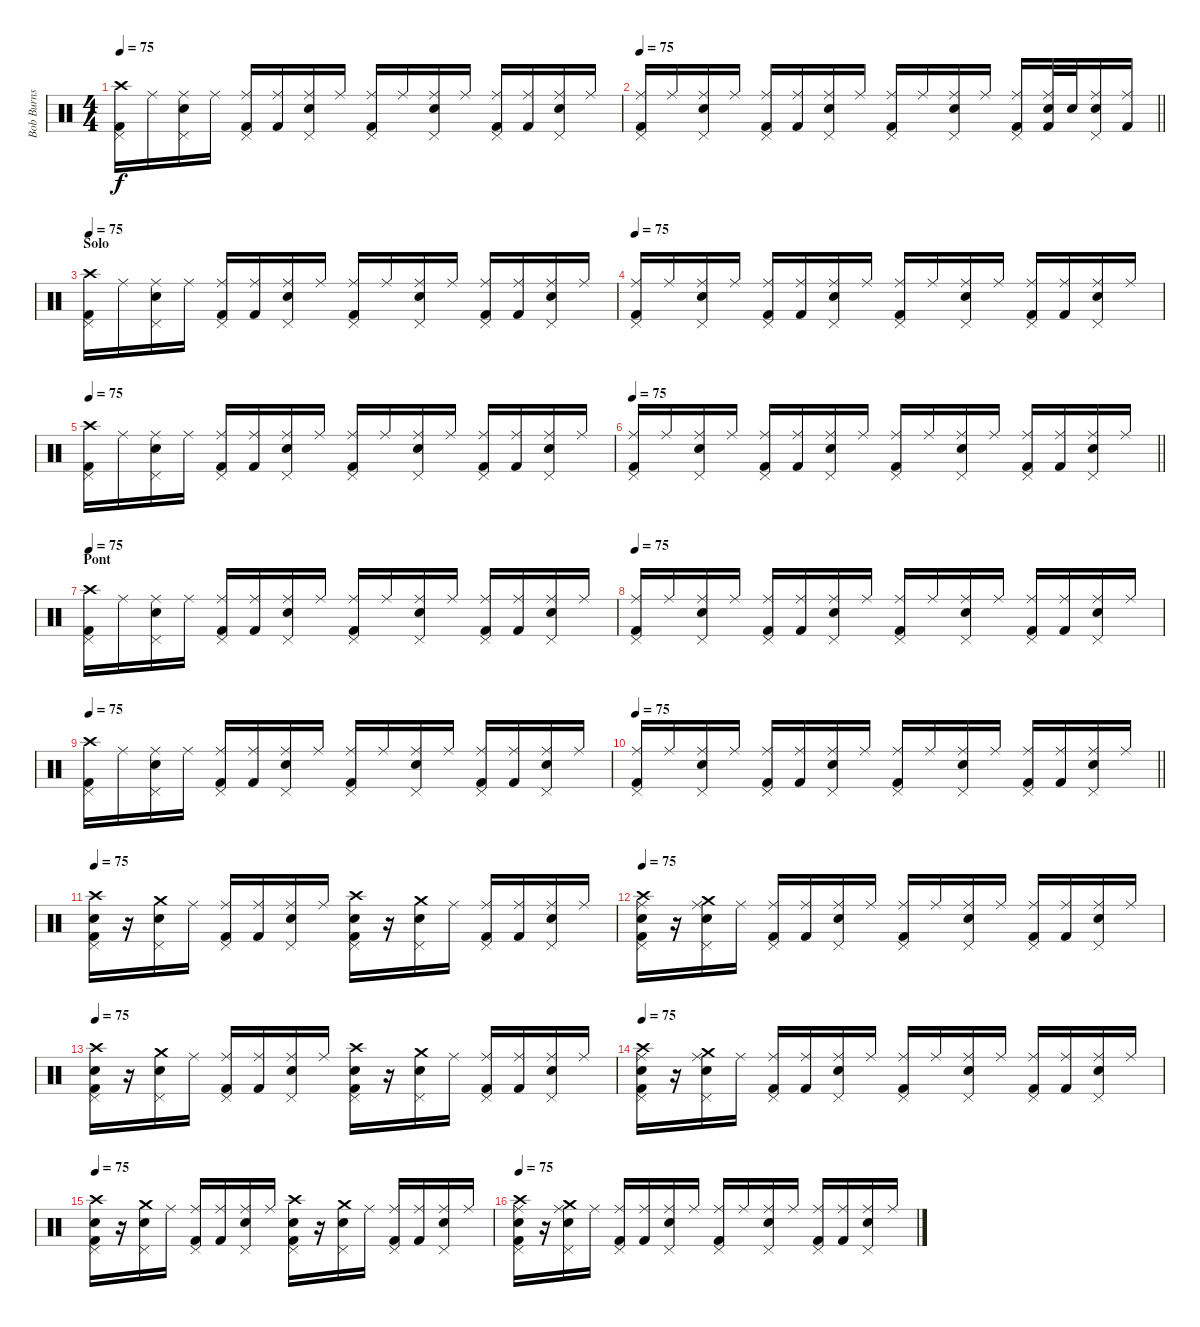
\track ("Bob Burns (drums and percussion)" "Bob Burns ") {instrument percussion}
\staff {score}
\articulation defaults
\ts (4 4)
\tempo 75
\clef neutral
\ks c
("Crash high (hit)" "Pedal Hi-Hat (hit)" "Kick (hit) 2").16{dy f} "Ride (middle)".16 ("Ride (middle)" "Pedal Hi-Hat (hit)" "Electric Snare (hit)").16 "Ride (middle)".16 ("Ride (middle)" "Pedal Hi-Hat (hit)" "Kick (hit) 2").16 ("Ride (middle)" "Kick (hit) 2").16 ("Ride (middle)" "Pedal Hi-Hat (hit)" "Electric Snare (hit)").16 "Ride (middle)".16 ("Ride (middle)" "Pedal Hi-Hat (hit)" "Kick (hit) 2").16 "Ride (middle)".16 ("Ride (middle)" "Pedal Hi-Hat (hit)" "Electric Snare (hit)").16 "Ride (middle)".16 ("Ride (middle)" "Pedal Hi-Hat (hit)" "Kick (hit) 2").16 ("Ride (middle)" "Kick (hit) 2").16 ("Ride (middle)" "Pedal Hi-Hat (hit)" "Electric Snare (hit)").16 "Ride (middle)".16 |
\tempo 75
\barLineRight lightlight
("Ride (middle)" "Pedal Hi-Hat (hit)" "Kick (hit) 2").16 "Ride (middle)".16 ("Ride (middle)" "Pedal Hi-Hat (hit)" "Electric Snare (hit)").16 "Ride (middle)".16 ("Ride (middle)" "Pedal Hi-Hat (hit)" "Kick (hit) 2").16 ("Ride (middle)" "Kick (hit) 2").16 ("Ride (middle)" "Pedal Hi-Hat (hit)" "Electric Snare (hit)").16 "Ride (middle)".16 ("Ride (middle)" "Pedal Hi-Hat (hit)" "Kick (hit) 2").16 "Ride (middle)".16 ("Ride (middle)" "Pedal Hi-Hat (hit)" "Electric Snare (hit)").16 "Ride (middle)".16 ("Ride (middle)" "Pedal Hi-Hat (hit)" "Kick (hit) 2").16 ("Ride (middle)" "Electric Snare (hit)" "Kick (hit) 2").32 "Electric Snare (hit)".32 ("Ride (middle)" "Pedal Hi-Hat (hit)" "Electric Snare (hit)").16 ("Ride (middle)" "Kick (hit) 2").16 |
\section ("" "Solo")
\tempo 75
("Crash high (hit)" "Pedal Hi-Hat (hit)" "Kick (hit) 2").16 "Ride (middle)".16 ("Ride (middle)" "Pedal Hi-Hat (hit)" "Electric Snare (hit)").16 "Ride (middle)".16 ("Ride (middle)" "Pedal Hi-Hat (hit)" "Kick (hit) 2").16 ("Ride (middle)" "Kick (hit) 2").16 ("Ride (middle)" "Pedal Hi-Hat (hit)" "Electric Snare (hit)").16 "Ride (middle)".16 ("Ride (middle)" "Pedal Hi-Hat (hit)" "Kick (hit) 2").16 "Ride (middle)".16 ("Ride (middle)" "Pedal Hi-Hat (hit)" "Electric Snare (hit)").16 "Ride (middle)".16 ("Ride (middle)" "Pedal Hi-Hat (hit)" "Kick (hit) 2").16 ("Ride (middle)" "Kick (hit) 2").16 ("Ride (middle)" "Pedal Hi-Hat (hit)" "Electric Snare (hit)").16 "Ride (middle)".16 |
\tempo 75
("Ride (middle)" "Pedal Hi-Hat (hit)" "Kick (hit) 2").16 "Ride (middle)".16 ("Ride (middle)" "Pedal Hi-Hat (hit)" "Electric Snare (hit)").16 "Ride (middle)".16 ("Ride (middle)" "Pedal Hi-Hat (hit)" "Kick (hit) 2").16 ("Ride (middle)" "Kick (hit) 2").16 ("Ride (middle)" "Pedal Hi-Hat (hit)" "Electric Snare (hit)").16 "Ride (middle)".16 ("Ride (middle)" "Pedal Hi-Hat (hit)" "Kick (hit) 2").16 "Ride (middle)".16 ("Ride (middle)" "Pedal Hi-Hat (hit)" "Electric Snare (hit)").16 "Ride (middle)".16 ("Ride (middle)" "Pedal Hi-Hat (hit)" "Kick (hit) 2").16 ("Ride (middle)" "Kick (hit) 2").16 ("Ride (middle)" "Pedal Hi-Hat (hit)" "Electric Snare (hit)").16 "Ride (middle)".16 |
\tempo 75
("Crash high (hit)" "Pedal Hi-Hat (hit)" "Kick (hit) 2").16 "Ride (middle)".16 ("Ride (middle)" "Pedal Hi-Hat (hit)" "Electric Snare (hit)").16 "Ride (middle)".16 ("Ride (middle)" "Pedal Hi-Hat (hit)" "Kick (hit) 2").16 ("Ride (middle)" "Kick (hit) 2").16 ("Ride (middle)" "Pedal Hi-Hat (hit)" "Electric Snare (hit)").16 "Ride (middle)".16 ("Ride (middle)" "Pedal Hi-Hat (hit)" "Kick (hit) 2").16 "Ride (middle)".16 ("Ride (middle)" "Pedal Hi-Hat (hit)" "Electric Snare (hit)").16 "Ride (middle)".16 ("Ride (middle)" "Pedal Hi-Hat (hit)" "Kick (hit) 2").16 ("Ride (middle)" "Kick (hit) 2").16 ("Ride (middle)" "Pedal Hi-Hat (hit)" "Electric Snare (hit)").16 "Ride (middle)".16 |
\tempo 75
\barLineRight lightlight
("Ride (middle)" "Pedal Hi-Hat (hit)" "Kick (hit) 2").16 "Ride (middle)".16 ("Ride (middle)" "Pedal Hi-Hat (hit)" "Electric Snare (hit)").16 "Ride (middle)".16 ("Ride (middle)" "Pedal Hi-Hat (hit)" "Kick (hit) 2").16 ("Ride (middle)" "Kick (hit) 2").16 ("Ride (middle)" "Pedal Hi-Hat (hit)" "Electric Snare (hit)").16 "Ride (middle)".16 ("Ride (middle)" "Pedal Hi-Hat (hit)" "Kick (hit) 2").16 "Ride (middle)".16 ("Ride (middle)" "Pedal Hi-Hat (hit)" "Electric Snare (hit)").16 "Ride (middle)".16 ("Ride (middle)" "Pedal Hi-Hat (hit)" "Kick (hit) 2").16 ("Ride (middle)" "Kick (hit) 2").16 ("Ride (middle)" "Pedal Hi-Hat (hit)" "Electric Snare (hit)").16 "Ride (middle)".16 |
\section ("" "Pont")
\tempo 75
("Crash high (hit)" "Pedal Hi-Hat (hit)" "Kick (hit) 2").16 "Ride (middle)".16 ("Ride (middle)" "Pedal Hi-Hat (hit)" "Electric Snare (hit)").16 "Ride (middle)".16 ("Ride (middle)" "Pedal Hi-Hat (hit)" "Kick (hit) 2").16 ("Ride (middle)" "Kick (hit) 2").16 ("Ride (middle)" "Pedal Hi-Hat (hit)" "Electric Snare (hit)").16 "Ride (middle)".16 ("Ride (middle)" "Pedal Hi-Hat (hit)" "Kick (hit) 2").16 "Ride (middle)".16 ("Ride (middle)" "Pedal Hi-Hat (hit)" "Electric Snare (hit)").16 "Ride (middle)".16 ("Ride (middle)" "Pedal Hi-Hat (hit)" "Kick (hit) 2").16 ("Ride (middle)" "Kick (hit) 2").16 ("Ride (middle)" "Pedal Hi-Hat (hit)" "Electric Snare (hit)").16 "Ride (middle)".16 |
\tempo 75
("Ride (middle)" "Pedal Hi-Hat (hit)" "Kick (hit) 2").16 "Ride (middle)".16 ("Ride (middle)" "Pedal Hi-Hat (hit)" "Electric Snare (hit)").16 "Ride (middle)".16 ("Ride (middle)" "Pedal Hi-Hat (hit)" "Kick (hit) 2").16 ("Ride (middle)" "Kick (hit) 2").16 ("Ride (middle)" "Pedal Hi-Hat (hit)" "Electric Snare (hit)").16 "Ride (middle)".16 ("Ride (middle)" "Pedal Hi-Hat (hit)" "Kick (hit) 2").16 "Ride (middle)".16 ("Ride (middle)" "Pedal Hi-Hat (hit)" "Electric Snare (hit)").16 "Ride (middle)".16 ("Ride (middle)" "Pedal Hi-Hat (hit)" "Kick (hit) 2").16 ("Ride (middle)" "Kick (hit) 2").16 ("Ride (middle)" "Pedal Hi-Hat (hit)" "Electric Snare (hit)").16 "Ride (middle)".16 |
\tempo 75
("Crash high (hit)" "Pedal Hi-Hat (hit)" "Kick (hit) 2").16 "Ride (middle)".16 ("Ride (middle)" "Pedal Hi-Hat (hit)" "Electric Snare (hit)").16 "Ride (middle)".16 ("Ride (middle)" "Pedal Hi-Hat (hit)" "Kick (hit) 2").16 ("Ride (middle)" "Kick (hit) 2").16 ("Ride (middle)" "Pedal Hi-Hat (hit)" "Electric Snare (hit)").16 "Ride (middle)".16 ("Ride (middle)" "Pedal Hi-Hat (hit)" "Kick (hit) 2").16 "Ride (middle)".16 ("Ride (middle)" "Pedal Hi-Hat (hit)" "Electric Snare (hit)").16 "Ride (middle)".16 ("Ride (middle)" "Pedal Hi-Hat (hit)" "Kick (hit) 2").16 ("Ride (middle)" "Kick (hit) 2").16 ("Ride (middle)" "Pedal Hi-Hat (hit)" "Electric Snare (hit)").16 "Ride (middle)".16 |
\tempo 75
\barLineRight lightlight
("Ride (middle)" "Pedal Hi-Hat (hit)" "Kick (hit) 2").16 "Ride (middle)".16 ("Ride (middle)" "Pedal Hi-Hat (hit)" "Electric Snare (hit)").16 "Ride (middle)".16 ("Ride (middle)" "Pedal Hi-Hat (hit)" "Kick (hit) 2").16 ("Ride (middle)" "Kick (hit) 2").16 ("Ride (middle)" "Pedal Hi-Hat (hit)" "Electric Snare (hit)").16 "Ride (middle)".16 ("Ride (middle)" "Pedal Hi-Hat (hit)" "Kick (hit) 2").16 "Ride (middle)".16 ("Ride (middle)" "Pedal Hi-Hat (hit)" "Electric Snare (hit)").16 "Ride (middle)".16 ("Ride (middle)" "Pedal Hi-Hat (hit)" "Kick (hit) 2").16 ("Ride (middle)" "Kick (hit) 2").16 ("Ride (middle)" "Pedal Hi-Hat (hit)" "Electric Snare (hit)").16 "Ride (middle)".16 |
\section ("" "")
\tempo 75
("Crash high (hit)" "Electric Snare (hit)" "Pedal Hi-Hat (hit)" "Kick (hit) 2").16 r.16 ("Crash medium (hit)" "Pedal Hi-Hat (hit)" "Electric Snare (hit)").16 "Ride (middle)".16 ("Ride (middle)" "Pedal Hi-Hat (hit)" "Kick (hit) 2").16 ("Ride (middle)" "Kick (hit) 2").16 ("Ride (middle)" "Pedal Hi-Hat (hit)" "Electric Snare (hit)").16 "Ride (middle)".16 ("Crash high (hit)" "Pedal Hi-Hat (hit)" "Electric Snare (hit)" "Kick (hit) 2").16 r.16 ("Crash medium (hit)" "Pedal Hi-Hat (hit)" "Electric Snare (hit)").16 "Ride (middle)".16 ("Ride (middle)" "Pedal Hi-Hat (hit)" "Kick (hit) 2").16 ("Ride (middle)" "Kick (hit) 2").16 ("Ride (middle)" "Pedal Hi-Hat (hit)" "Electric Snare (hit)").16 "Ride (middle)".16 |
\tempo 75
("Crash high (hit)" "Ride (middle)" "Pedal Hi-Hat (hit)" "Electric Snare (hit)" "Kick (hit) 2").16 r.16 ("Crash medium (hit)" "Ride (middle)" "Pedal Hi-Hat (hit)" "Electric Snare (hit)").16 "Ride (middle)".16 ("Ride (middle)" "Pedal Hi-Hat (hit)" "Kick (hit) 2").16 ("Ride (middle)" "Kick (hit) 2").16 ("Ride (middle)" "Pedal Hi-Hat (hit)" "Electric Snare (hit)").16 "Ride (middle)".16 ("Ride (middle)" "Pedal Hi-Hat (hit)" "Kick (hit) 2").16 "Ride (middle)".16 ("Ride (middle)" "Pedal Hi-Hat (hit)" "Electric Snare (hit)").16 "Ride (middle)".16 ("Ride (middle)" "Pedal Hi-Hat (hit)" "Kick (hit) 2").16 ("Ride (middle)" "Kick (hit) 2").16 ("Ride (middle)" "Pedal Hi-Hat (hit)" "Electric Snare (hit)").16 "Ride (middle)".16 |
\tempo 75
("Crash high (hit)" "Electric Snare (hit)" "Pedal Hi-Hat (hit)" "Kick (hit) 2").16 r.16 ("Crash medium (hit)" "Pedal Hi-Hat (hit)" "Electric Snare (hit)").16 "Ride (middle)".16 ("Ride (middle)" "Pedal Hi-Hat (hit)" "Kick (hit) 2").16 ("Ride (middle)" "Kick (hit) 2").16 ("Ride (middle)" "Pedal Hi-Hat (hit)" "Electric Snare (hit)").16 "Ride (middle)".16 ("Crash high (hit)" "Pedal Hi-Hat (hit)" "Electric Snare (hit)" "Kick (hit) 2").16 r.16 ("Crash medium (hit)" "Pedal Hi-Hat (hit)" "Electric Snare (hit)").16 "Ride (middle)".16 ("Ride (middle)" "Pedal Hi-Hat (hit)" "Kick (hit) 2").16 ("Ride (middle)" "Kick (hit) 2").16 ("Ride (middle)" "Pedal Hi-Hat (hit)" "Electric Snare (hit)").16 "Ride (middle)".16 |
\tempo 75
("Crash high (hit)" "Ride (middle)" "Pedal Hi-Hat (hit)" "Electric Snare (hit)" "Kick (hit) 2").16 r.16 ("Crash medium (hit)" "Ride (middle)" "Pedal Hi-Hat (hit)" "Electric Snare (hit)").16 "Ride (middle)".16 ("Ride (middle)" "Pedal Hi-Hat (hit)" "Kick (hit) 2").16 ("Ride (middle)" "Kick (hit) 2").16 ("Ride (middle)" "Pedal Hi-Hat (hit)" "Electric Snare (hit)").16 "Ride (middle)".16 ("Ride (middle)" "Pedal Hi-Hat (hit)" "Kick (hit) 2").16 "Ride (middle)".16 ("Ride (middle)" "Pedal Hi-Hat (hit)" "Electric Snare (hit)").16 "Ride (middle)".16 ("Ride (middle)" "Pedal Hi-Hat (hit)" "Kick (hit) 2").16 ("Ride (middle)" "Kick (hit) 2").16 ("Ride (middle)" "Pedal Hi-Hat (hit)" "Electric Snare (hit)").16 "Ride (middle)".16 |
\tempo 75
("Crash high (hit)" "Electric Snare (hit)" "Pedal Hi-Hat (hit)" "Kick (hit) 2").16 r.16 ("Crash medium (hit)" "Pedal Hi-Hat (hit)" "Electric Snare (hit)").16 "Ride (middle)".16 ("Ride (middle)" "Pedal Hi-Hat (hit)" "Kick (hit) 2").16 ("Ride (middle)" "Kick (hit) 2").16 ("Ride (middle)" "Pedal Hi-Hat (hit)" "Electric Snare (hit)").16 "Ride (middle)".16 ("Crash high (hit)" "Pedal Hi-Hat (hit)" "Electric Snare (hit)" "Kick (hit) 2").16 r.16 ("Crash medium (hit)" "Pedal Hi-Hat (hit)" "Electric Snare (hit)").16 "Ride (middle)".16 ("Ride (middle)" "Pedal Hi-Hat (hit)" "Kick (hit) 2").16 ("Ride (middle)" "Kick (hit) 2").16 ("Ride (middle)" "Pedal Hi-Hat (hit)" "Electric Snare (hit)").16 "Ride (middle)".16 |
\tempo 75
("Crash high (hit)" "Ride (middle)" "Pedal Hi-Hat (hit)" "Electric Snare (hit)" "Kick (hit) 2").16 r.16 ("Crash medium (hit)" "Ride (middle)" "Pedal Hi-Hat (hit)" "Electric Snare (hit)").16 "Ride (middle)".16 ("Ride (middle)" "Pedal Hi-Hat (hit)" "Kick (hit) 2").16 ("Ride (middle)" "Kick (hit) 2").16 ("Ride (middle)" "Pedal Hi-Hat (hit)" "Electric Snare (hit)").16 "Ride (middle)".16 ("Ride (middle)" "Pedal Hi-Hat (hit)" "Kick (hit) 2").16 "Ride (middle)".16 ("Ride (middle)" "Pedal Hi-Hat (hit)" "Electric Snare (hit)").16 "Ride (middle)".16 ("Ride (middle)" "Pedal Hi-Hat (hit)" "Kick (hit) 2").16 ("Ride (middle)" "Kick (hit) 2").16 ("Ride (middle)" "Pedal Hi-Hat (hit)" "Electric Snare (hit)").16 "Ride (middle)".16
